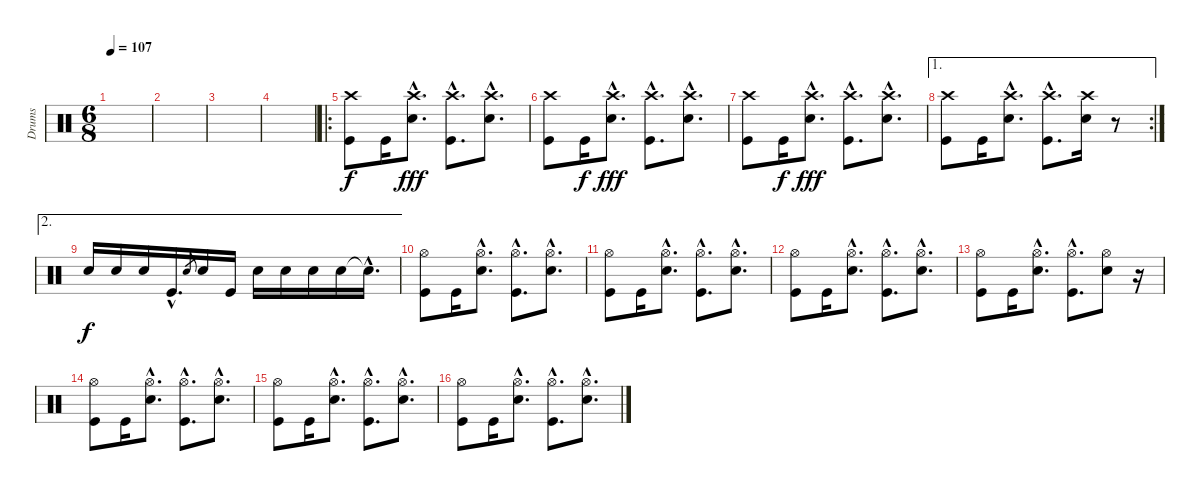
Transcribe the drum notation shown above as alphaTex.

\track ("Drums" "Drums") {instrument percussion}
\staff {score}
\articulation defaults
\ts (6 8)
\tempo 107
\clef neutral
\ks c
|
|
|
|
\ro
("Crash high (hit)" "Kick (hit)").8 "Kick (hit)".16{dy f} ("Crash high (hit)"{hac} "Snare (hit) 2"{hac}).8{d dy fff} ("Crash high (hit)"{hac} "Kick (hit)"{hac}).8{d} ("Crash high (hit)"{hac} "Snare (hit) 2"{hac}).8{d} |
("Crash high (hit)" "Kick (hit)").8 "Kick (hit)".16{dy f} ("Crash high (hit)"{hac} "Snare (hit) 2"{hac}).8{d dy fff} ("Crash high (hit)"{hac} "Kick (hit)"{hac}).8{d} ("Crash high (hit)"{hac} "Snare (hit) 2"{hac}).8{d} |
("Crash high (hit)" "Kick (hit)").8 "Kick (hit)".16{dy f} ("Crash high (hit)"{hac} "Snare (hit) 2"{hac}).8{d dy fff} ("Crash high (hit)"{hac} "Kick (hit)"{hac}).8{d} ("Crash high (hit)"{hac} "Snare (hit) 2"{hac}).8{d} |
\ae 1
\rc 2
("Crash high (hit)" "Kick (hit)").8 "Kick (hit)".16 ("Crash high (hit)"{hac} "Snare (hit) 2"{hac}).8{d} ("Crash high (hit)"{hac} "Kick (hit)"{hac}).8{d} ("Crash high (hit)" "Snare (hit) 2").16 r.8 |
\ae 2 "Snare (hit) 2".16{dy f} "Snare (hit) 2".16 "Snare (hit) 2".16 "Kick (hit)"{hac}.16{d} "Snare (hit) 2".8{gr} "Snare (hit) 2".16 "Kick (hit)".16 "Snare (hit) 2".16 "Snare (hit) 2".16 "Snare (hit) 2".16 "Snare (hit) 2".16 "Snare (hit)"{hac t}.16{d}
|
("Hi-Hat (open)" "Kick (hit)").8 "Kick (hit)".16 ("Hi-Hat (open)"{hac} "Snare (hit) 2"{hac}).8{d} ("Hi-Hat (open)"{hac} "Kick (hit)"{hac}).8{d} ("Hi-Hat (open)"{hac} "Snare (hit) 2"{hac}).8{d} |
("Hi-Hat (open)" "Kick (hit)").8 "Kick (hit)".16 ("Hi-Hat (open)"{hac} "Snare (hit) 2"{hac}).8{d} ("Hi-Hat (open)"{hac} "Kick (hit)"{hac}).8{d} ("Hi-Hat (open)"{hac} "Snare (hit) 2"{hac}).8{d} |
("Hi-Hat (open)" "Kick (hit)").8 "Kick (hit)".16 ("Hi-Hat (open)"{hac} "Snare (hit) 2"{hac}).8{d} ("Hi-Hat (open)"{hac} "Kick (hit)"{hac}).8{d} ("Hi-Hat (open)"{hac} "Snare (hit) 2"{hac}).8{d} |
("Hi-Hat (open)" "Kick (hit)").8 "Kick (hit)".16 ("Hi-Hat (open)"{hac} "Snare (hit) 2"{hac}).8{d} ("Hi-Hat (open)"{hac} "Kick (hit)"{hac}).8{d} ("Hi-Hat (open)" "Snare (hit) 2").8 r.16 |
("Hi-Hat (open)" "Kick (hit)").8 "Kick (hit)".16 ("Hi-Hat (open)"{hac} "Snare (hit) 2"{hac}).8{d} ("Hi-Hat (open)"{hac} "Kick (hit)"{hac}).8{d} ("Hi-Hat (open)"{hac} "Snare (hit) 2"{hac}).8{d} |
("Hi-Hat (open)" "Kick (hit)").8 "Kick (hit)".16 ("Hi-Hat (open)"{hac} "Snare (hit) 2"{hac}).8{d} ("Hi-Hat (open)"{hac} "Kick (hit)"{hac}).8{d} ("Hi-Hat (open)"{hac} "Snare (hit) 2"{hac}).8{d} |
("Hi-Hat (open)" "Kick (hit)").8 "Kick (hit)".16 ("Hi-Hat (open)"{hac} "Snare (hit) 2"{hac}).8{d} ("Hi-Hat (open)"{hac} "Kick (hit)"{hac}).8{d} ("Hi-Hat (open)"{hac} "Snare (hit) 2"{hac}).8{d}
